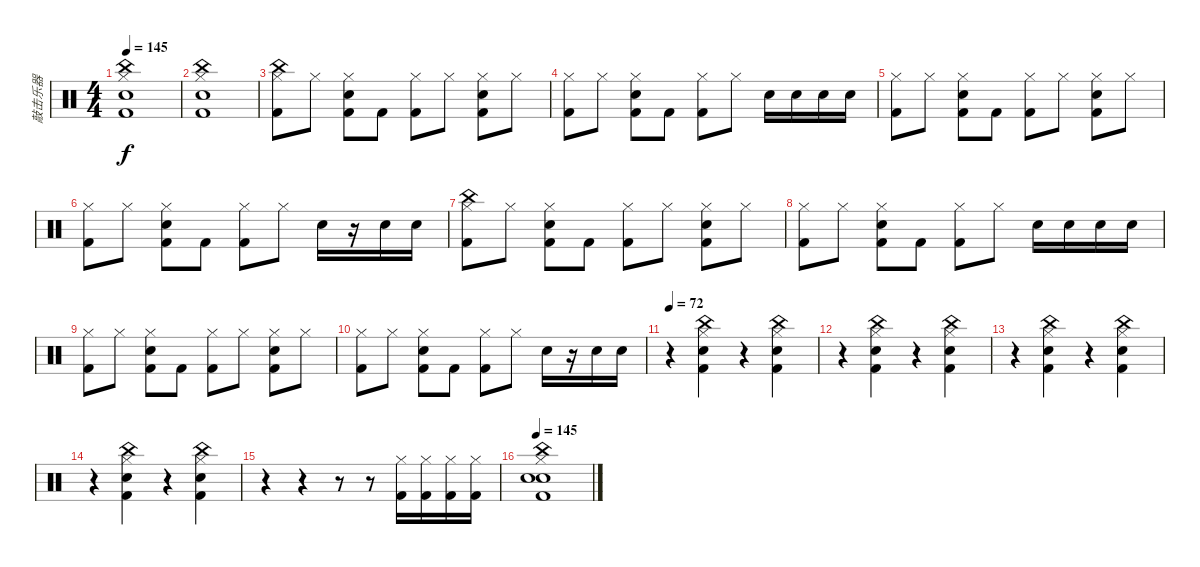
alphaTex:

\track ("敲击乐器" "敲击乐器") {instrument percussion}
\staff {score}
\articulation defaults
\ts (4 4)
\tempo 145
\clef neutral
\ks c
("China (hit)" "Hi-Hat (closed)" "Kick (hit) 2" "Electric Snare (hit)").1{dy f} |
("China (hit)" "Hi-Hat (closed)" "Kick (hit) 2" "Electric Snare (hit)").1 |
("Kick (hit) 2" "Hi-Hat (closed)" "China (hit)").8 "Hi-Hat (closed)".8 ("Electric Snare (hit)" "Kick (hit) 2" "Hi-Hat (closed)").8 "Kick (hit) 2".8 ("Kick (hit) 2" "Hi-Hat (closed)").8 "Hi-Hat (closed)".8 ("Electric Snare (hit)" "Kick (hit) 2" "Hi-Hat (closed)").8 "Hi-Hat (closed)".8 |
("Kick (hit) 2" "Hi-Hat (closed)").8 "Hi-Hat (closed)".8 ("Electric Snare (hit)" "Kick (hit) 2" "Hi-Hat (closed)").8 "Kick (hit) 2".8 ("Kick (hit) 2" "Hi-Hat (closed)").8 "Hi-Hat (closed)".8 "Electric Snare (hit)".16 "Electric Snare (hit)".16 "Electric Snare (hit)".16 "Electric Snare (hit)".16 |
("Kick (hit) 2" "Hi-Hat (closed)").8 "Hi-Hat (closed)".8 ("Electric Snare (hit)" "Kick (hit) 2" "Hi-Hat (closed)").8 "Kick (hit) 2".8 ("Kick (hit) 2" "Hi-Hat (closed)").8 "Hi-Hat (closed)".8 ("Electric Snare (hit)" "Kick (hit) 2" "Hi-Hat (closed)").8 "Hi-Hat (closed)".8 |
("Kick (hit) 2" "Hi-Hat (closed)").8 "Hi-Hat (closed)".8 ("Electric Snare (hit)" "Kick (hit) 2" "Hi-Hat (closed)").8 "Kick (hit) 2".8 ("Kick (hit) 2" "Hi-Hat (closed)").8 "Hi-Hat (closed)".8 "Electric Snare (hit)".16 r.16 "Electric Snare (hit)".16 "Electric Snare (hit)".16 |
("Kick (hit) 2" "Hi-Hat (closed)" "China (hit)").8 "Hi-Hat (closed)".8 ("Electric Snare (hit)" "Kick (hit) 2" "Hi-Hat (closed)").8 "Kick (hit) 2".8 ("Kick (hit) 2" "Hi-Hat (closed)").8 "Hi-Hat (closed)".8 ("Electric Snare (hit)" "Kick (hit) 2" "Hi-Hat (closed)").8 "Hi-Hat (closed)".8 |
("Kick (hit) 2" "Hi-Hat (closed)").8 "Hi-Hat (closed)".8 ("Electric Snare (hit)" "Kick (hit) 2" "Hi-Hat (closed)").8 "Kick (hit) 2".8 ("Kick (hit) 2" "Hi-Hat (closed)").8 "Hi-Hat (closed)".8 "Electric Snare (hit)".16 "Electric Snare (hit)".16 "Electric Snare (hit)".16 "Electric Snare (hit)".16 |
("Kick (hit) 2" "Hi-Hat (closed)").8 "Hi-Hat (closed)".8 ("Electric Snare (hit)" "Kick (hit) 2" "Hi-Hat (closed)").8 "Kick (hit) 2".8 ("Kick (hit) 2" "Hi-Hat (closed)").8 "Hi-Hat (closed)".8 ("Electric Snare (hit)" "Kick (hit) 2" "Hi-Hat (closed)").8 "Hi-Hat (closed)".8 |
("Kick (hit) 2" "Hi-Hat (closed)").8 "Hi-Hat (closed)".8 ("Electric Snare (hit)" "Kick (hit) 2" "Hi-Hat (closed)").8 "Kick (hit) 2".8 ("Kick (hit) 2" "Hi-Hat (closed)").8 "Hi-Hat (closed)".8 "Electric Snare (hit)".16 r.16 "Electric Snare (hit)".16 "Electric Snare (hit)".16 |
\tempo 72
r.4 ("China (hit)" "Electric Snare (hit)" "Kick (hit) 2" "Hi-Hat (closed)").4 r.4 ("Hi-Hat (closed)" "Electric Snare (hit)" "Kick (hit) 2" "China (hit)").4 |
r.4 ("China (hit)" "Electric Snare (hit)" "Kick (hit) 2" "Hi-Hat (closed)").4 r.4 ("Hi-Hat (closed)" "Electric Snare (hit)" "Kick (hit) 2" "China (hit)").4 |
r.4 ("China (hit)" "Electric Snare (hit)" "Kick (hit) 2" "Hi-Hat (closed)").4 r.4 ("Hi-Hat (closed)" "Electric Snare (hit)" "Kick (hit) 2" "China (hit)").4 |
r.4 ("China (hit)" "Electric Snare (hit)" "Kick (hit) 2" "Hi-Hat (closed)").4 r.4 ("Hi-Hat (closed)" "Electric Snare (hit)" "Kick (hit) 2" "China (hit)").4 |
r.4 r.4 r.8 r.8 ("Kick (hit) 2" "Hi-Hat (closed)").16 ("Kick (hit) 2" "Hi-Hat (closed)").16 ("Kick (hit) 2" "Hi-Hat (closed)").16 ("Kick (hit) 2" "Hi-Hat (closed)").16 |
\tempo 145
("China (hit)" "Hi-Hat (closed)" "Kick (hit) 2" "Snare (hit) 2" "Electric Snare (hit)").1
